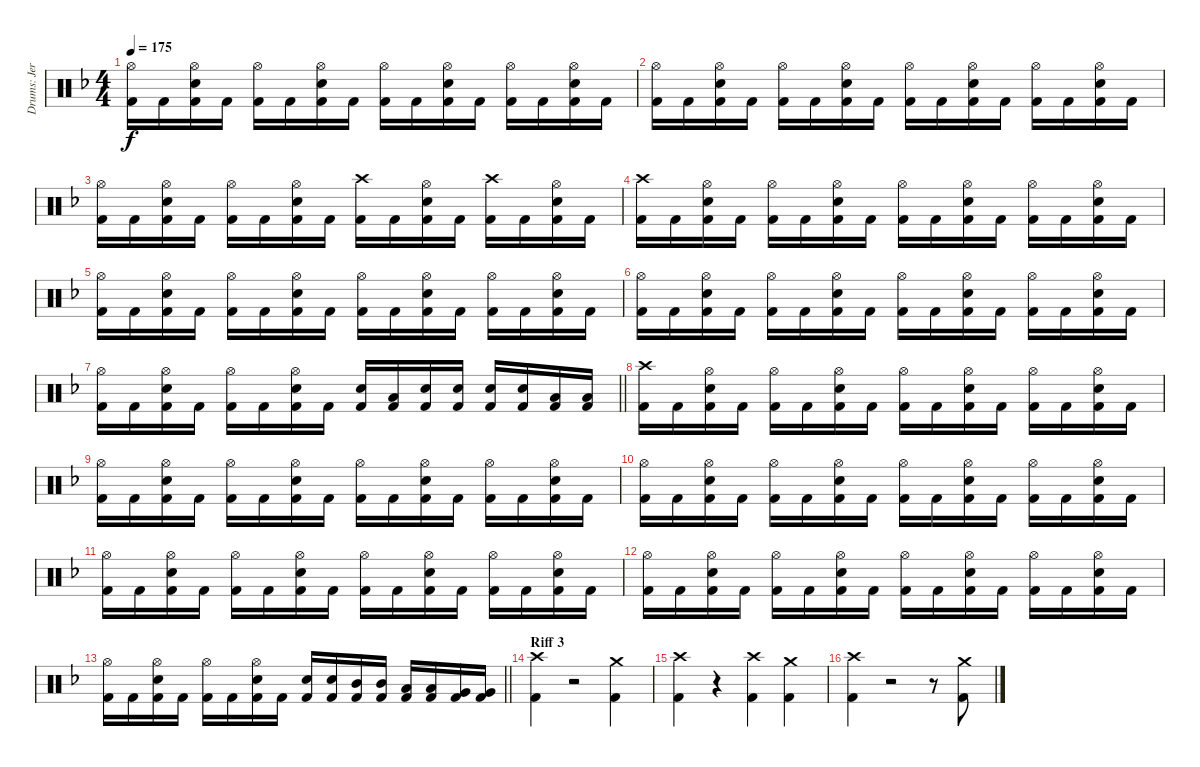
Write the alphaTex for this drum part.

\track ("Drums: Jere Luokkamäki" "Drums: Jer") {instrument percussion}
\staff {score}
\articulation defaults
\ts (4 4)
\tempo 175
\clef neutral
\ks dminor
("Hi-Hat (open)" "Kick (hit) 2").16{dy f} "Kick (hit) 2".16 ("Hi-Hat (open)" "Electric Snare (hit)" "Kick (hit) 2").16 "Kick (hit) 2".16 ("Hi-Hat (open)" "Kick (hit) 2").16 "Kick (hit) 2".16 ("Hi-Hat (open)" "Electric Snare (hit)" "Kick (hit) 2").16 "Kick (hit) 2".16 ("Hi-Hat (open)" "Kick (hit) 2").16 "Kick (hit) 2".16 ("Hi-Hat (open)" "Electric Snare (hit)" "Kick (hit) 2").16 "Kick (hit) 2".16 ("Hi-Hat (open)" "Kick (hit) 2").16 "Kick (hit) 2".16 ("Hi-Hat (open)" "Electric Snare (hit)" "Kick (hit) 2").16 "Kick (hit) 2".16 |
("Hi-Hat (open)" "Kick (hit) 2").16 "Kick (hit) 2".16 ("Hi-Hat (open)" "Electric Snare (hit)" "Kick (hit) 2").16 "Kick (hit) 2".16 ("Hi-Hat (open)" "Kick (hit) 2").16 "Kick (hit) 2".16 ("Hi-Hat (open)" "Electric Snare (hit)" "Kick (hit) 2").16 "Kick (hit) 2".16 ("Hi-Hat (open)" "Kick (hit) 2").16 "Kick (hit) 2".16 ("Hi-Hat (open)" "Electric Snare (hit)" "Kick (hit) 2").16 "Kick (hit) 2".16 ("Hi-Hat (open)" "Kick (hit) 2").16 "Kick (hit) 2".16 ("Hi-Hat (open)" "Electric Snare (hit)" "Kick (hit) 2").16 "Kick (hit) 2".16 |
("Hi-Hat (open)" "Kick (hit) 2").16 "Kick (hit) 2".16 ("Hi-Hat (open)" "Electric Snare (hit)" "Kick (hit) 2").16 "Kick (hit) 2".16 ("Hi-Hat (open)" "Kick (hit) 2").16 "Kick (hit) 2".16 ("Hi-Hat (open)" "Electric Snare (hit)" "Kick (hit) 2").16 "Kick (hit) 2".16 ("Crash high (hit)" "Kick (hit) 2").16 "Kick (hit) 2".16 ("Hi-Hat (open)" "Electric Snare (hit)" "Kick (hit) 2").16 "Kick (hit) 2".16 ("Crash high (hit)" "Kick (hit) 2").16 "Kick (hit) 2".16 ("Hi-Hat (open)" "Electric Snare (hit)" "Kick (hit) 2").16 "Kick (hit) 2".16 |
("Crash high (hit)" "Kick (hit) 2").16 "Kick (hit) 2".16 ("Hi-Hat (open)" "Electric Snare (hit)" "Kick (hit) 2").16 "Kick (hit) 2".16 ("Hi-Hat (open)" "Kick (hit) 2").16 "Kick (hit) 2".16 ("Hi-Hat (open)" "Electric Snare (hit)" "Kick (hit) 2").16 "Kick (hit) 2".16 ("Hi-Hat (open)" "Kick (hit) 2").16 "Kick (hit) 2".16 ("Hi-Hat (open)" "Electric Snare (hit)" "Kick (hit) 2").16 "Kick (hit) 2".16 ("Hi-Hat (open)" "Kick (hit) 2").16 "Kick (hit) 2".16 ("Hi-Hat (open)" "Electric Snare (hit)" "Kick (hit) 2").16 "Kick (hit) 2".16 |
("Hi-Hat (open)" "Kick (hit) 2").16 "Kick (hit) 2".16 ("Hi-Hat (open)" "Electric Snare (hit)" "Kick (hit) 2").16 "Kick (hit) 2".16 ("Hi-Hat (open)" "Kick (hit) 2").16 "Kick (hit) 2".16 ("Hi-Hat (open)" "Electric Snare (hit)" "Kick (hit) 2").16 "Kick (hit) 2".16 ("Hi-Hat (open)" "Kick (hit) 2").16 "Kick (hit) 2".16 ("Hi-Hat (open)" "Electric Snare (hit)" "Kick (hit) 2").16 "Kick (hit) 2".16 ("Hi-Hat (open)" "Kick (hit) 2").16 "Kick (hit) 2".16 ("Hi-Hat (open)" "Electric Snare (hit)" "Kick (hit) 2").16 "Kick (hit) 2".16 |
("Hi-Hat (open)" "Kick (hit) 2").16 "Kick (hit) 2".16 ("Hi-Hat (open)" "Electric Snare (hit)" "Kick (hit) 2").16 "Kick (hit) 2".16 ("Hi-Hat (open)" "Kick (hit) 2").16 "Kick (hit) 2".16 ("Hi-Hat (open)" "Electric Snare (hit)" "Kick (hit) 2").16 "Kick (hit) 2".16 ("Hi-Hat (open)" "Kick (hit) 2").16 "Kick (hit) 2".16 ("Hi-Hat (open)" "Electric Snare (hit)" "Kick (hit) 2").16 "Kick (hit) 2".16 ("Hi-Hat (open)" "Kick (hit) 2").16 "Kick (hit) 2".16 ("Hi-Hat (open)" "Electric Snare (hit)" "Kick (hit) 2").16 "Kick (hit) 2".16 |
\barLineRight lightlight
("Hi-Hat (open)" "Kick (hit) 2").16 "Kick (hit) 2".16 ("Hi-Hat (open)" "Electric Snare (hit)" "Kick (hit) 2").16 "Kick (hit) 2".16 ("Hi-Hat (open)" "Kick (hit) 2").16 "Kick (hit) 2".16 ("Hi-Hat (open)" "Electric Snare (hit)" "Kick (hit) 2").16 "Kick (hit) 2".16 ("Electric Snare (hit)" "Kick (hit) 2").16 ("Low Tom (hit)" "Kick (hit) 2").16 ("Electric Snare (hit)" "Kick (hit) 2").16 ("Electric Snare (hit)" "Kick (hit) 2").16 ("Electric Snare (hit)" "Kick (hit) 2").16 ("Electric Snare (hit)" "Kick (hit) 2").16 ("Low Tom (hit)" "Kick (hit) 2").16 ("Low Tom (hit)" "Kick (hit) 2").16 |
("Crash high (hit)" "Kick (hit) 2").16 "Kick (hit) 2".16 ("Hi-Hat (open)" "Electric Snare (hit)" "Kick (hit) 2").16 "Kick (hit) 2".16 ("Hi-Hat (open)" "Kick (hit) 2").16 "Kick (hit) 2".16 ("Hi-Hat (open)" "Electric Snare (hit)" "Kick (hit) 2").16 "Kick (hit) 2".16 ("Hi-Hat (open)" "Kick (hit) 2").16 "Kick (hit) 2".16 ("Hi-Hat (open)" "Electric Snare (hit)" "Kick (hit) 2").16 "Kick (hit) 2".16 ("Hi-Hat (open)" "Kick (hit) 2").16 "Kick (hit) 2".16 ("Hi-Hat (open)" "Electric Snare (hit)" "Kick (hit) 2").16 "Kick (hit) 2".16 |
("Hi-Hat (open)" "Kick (hit) 2").16 "Kick (hit) 2".16 ("Hi-Hat (open)" "Electric Snare (hit)" "Kick (hit) 2").16 "Kick (hit) 2".16 ("Hi-Hat (open)" "Kick (hit) 2").16 "Kick (hit) 2".16 ("Hi-Hat (open)" "Electric Snare (hit)" "Kick (hit) 2").16 "Kick (hit) 2".16 ("Hi-Hat (open)" "Kick (hit) 2").16 "Kick (hit) 2".16 ("Hi-Hat (open)" "Electric Snare (hit)" "Kick (hit) 2").16 "Kick (hit) 2".16 ("Hi-Hat (open)" "Kick (hit) 2").16 "Kick (hit) 2".16 ("Hi-Hat (open)" "Electric Snare (hit)" "Kick (hit) 2").16 "Kick (hit) 2".16 |
("Hi-Hat (open)" "Kick (hit) 2").16 "Kick (hit) 2".16 ("Hi-Hat (open)" "Electric Snare (hit)" "Kick (hit) 2").16 "Kick (hit) 2".16 ("Hi-Hat (open)" "Kick (hit) 2").16 "Kick (hit) 2".16 ("Hi-Hat (open)" "Electric Snare (hit)" "Kick (hit) 2").16 "Kick (hit) 2".16 ("Hi-Hat (open)" "Kick (hit) 2").16 "Kick (hit) 2".16 ("Hi-Hat (open)" "Electric Snare (hit)" "Kick (hit) 2").16 "Kick (hit) 2".16 ("Hi-Hat (open)" "Kick (hit) 2").16 "Kick (hit) 2".16 ("Hi-Hat (open)" "Electric Snare (hit)" "Kick (hit) 2").16 "Kick (hit) 2".16 |
("Hi-Hat (open)" "Kick (hit) 2").16 "Kick (hit) 2".16 ("Hi-Hat (open)" "Electric Snare (hit)" "Kick (hit) 2").16 "Kick (hit) 2".16 ("Hi-Hat (open)" "Kick (hit) 2").16 "Kick (hit) 2".16 ("Hi-Hat (open)" "Electric Snare (hit)" "Kick (hit) 2").16 "Kick (hit) 2".16 ("Hi-Hat (open)" "Kick (hit) 2").16 "Kick (hit) 2".16 ("Hi-Hat (open)" "Electric Snare (hit)" "Kick (hit) 2").16 "Kick (hit) 2".16 ("Hi-Hat (open)" "Kick (hit) 2").16 "Kick (hit) 2".16 ("Hi-Hat (open)" "Electric Snare (hit)" "Kick (hit) 2").16 "Kick (hit) 2".16 |
("Hi-Hat (open)" "Kick (hit) 2").16 "Kick (hit) 2".16 ("Hi-Hat (open)" "Electric Snare (hit)" "Kick (hit) 2").16 "Kick (hit) 2".16 ("Hi-Hat (open)" "Kick (hit) 2").16 "Kick (hit) 2".16 ("Hi-Hat (open)" "Electric Snare (hit)" "Kick (hit) 2").16 "Kick (hit) 2".16 ("Hi-Hat (open)" "Kick (hit) 2").16 "Kick (hit) 2".16 ("Hi-Hat (open)" "Electric Snare (hit)" "Kick (hit) 2").16 "Kick (hit) 2".16 ("Hi-Hat (open)" "Kick (hit) 2").16 "Kick (hit) 2".16 ("Hi-Hat (open)" "Electric Snare (hit)" "Kick (hit) 2").16 "Kick (hit) 2".16 |
\barLineRight lightlight
("Hi-Hat (open)" "Kick (hit) 2").16 "Kick (hit) 2".16 ("Hi-Hat (open)" "Electric Snare (hit)" "Kick (hit) 2").16 "Kick (hit) 2".16 ("Hi-Hat (open)" "Kick (hit) 2").16 "Kick (hit) 2".16 ("Hi-Hat (open)" "Electric Snare (hit)" "Kick (hit) 2").16 "Kick (hit) 2".16 ("Electric Snare (hit)" "Kick (hit) 2").16 ("Electric Snare (hit)" "Kick (hit) 2").16 ("Mid Tom (hit)" "Kick (hit) 2").16 ("Mid Tom (hit)" "Kick (hit) 2").16 ("Low Tom (hit)" "Kick (hit) 2").16 ("Low Tom (hit)" "Kick (hit) 2").16 ("Very Low Tom (hit)" "Kick (hit) 2").16 ("Very Low Tom (hit)" "Kick (hit) 2").16 |
\section ("" "Riff 3")
("Crash high (hit)" "Kick (hit) 2").4 r.2 ("Crash medium (hit)" "Kick (hit) 2").4 |
("Crash high (hit)" "Kick (hit) 2").4 r.4 ("Crash high (hit)" "Kick (hit) 2").4 ("Crash medium (hit)" "Kick (hit) 2").4 |
("Crash high (hit)" "Kick (hit) 2").4 r.2 r.8 ("Crash medium (hit)" "Kick (hit) 2").8
